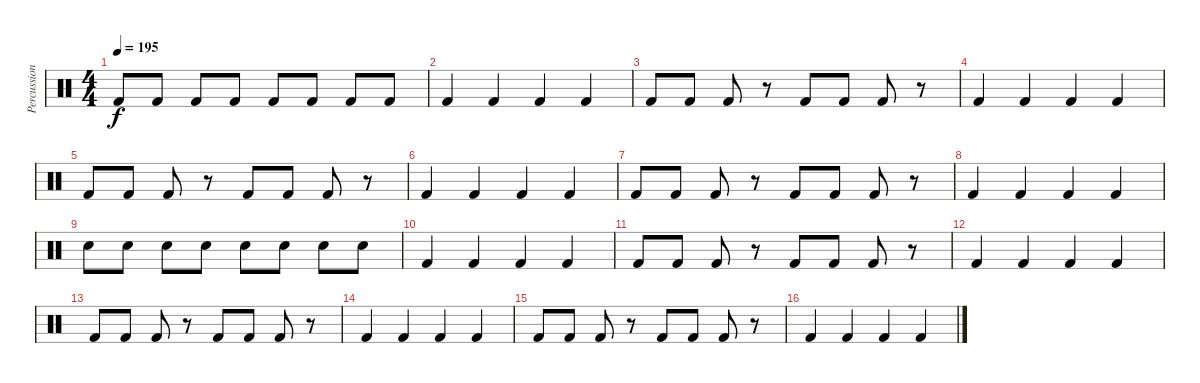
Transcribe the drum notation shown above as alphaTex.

\track ("Percussion" "Percussion") {instrument percussion}
\staff {score}
\articulation defaults
\ts (4 4)
\tempo 195
\clef neutral
\ks c "Kick (hit) 2".8{dy f} "Kick (hit) 2".8 "Kick (hit) 2".8 "Kick (hit) 2".8 "Kick (hit) 2".8 "Kick (hit) 2".8 "Kick (hit) 2".8 "Kick (hit) 2".8
|
"Kick (hit) 2".4 "Kick (hit) 2".4 "Kick (hit) 2".4 "Kick (hit) 2".4 |
"Kick (hit) 2".8 "Kick (hit) 2".8 "Kick (hit) 2".8 r.8 "Kick (hit) 2".8 "Kick (hit) 2".8 "Kick (hit) 2".8 r.8 |
"Kick (hit) 2".4 "Kick (hit) 2".4 "Kick (hit) 2".4 "Kick (hit) 2".4 |
"Kick (hit) 2".8 "Kick (hit) 2".8 "Kick (hit) 2".8 r.8 "Kick (hit) 2".8 "Kick (hit) 2".8 "Kick (hit) 2".8 r.8 |
"Kick (hit) 2".4 "Kick (hit) 2".4 "Kick (hit) 2".4 "Kick (hit) 2".4 |
"Kick (hit) 2".8 "Kick (hit) 2".8 "Kick (hit) 2".8 r.8 "Kick (hit) 2".8 "Kick (hit) 2".8 "Kick (hit) 2".8 r.8 |
"Kick (hit) 2".4 "Kick (hit) 2".4 "Kick (hit) 2".4 "Kick (hit) 2".4 |
"Snare (hit) 2".8 "Snare (hit) 2".8 "Snare (hit) 2".8 "Snare (hit) 2".8 "Snare (hit) 2".8 "Snare (hit) 2".8 "Snare (hit) 2".8 "Snare (hit) 2".8 |
"Kick (hit) 2".4 "Kick (hit) 2".4 "Kick (hit) 2".4 "Kick (hit) 2".4 |
"Kick (hit) 2".8 "Kick (hit) 2".8 "Kick (hit) 2".8 r.8 "Kick (hit) 2".8 "Kick (hit) 2".8 "Kick (hit) 2".8 r.8 |
"Kick (hit) 2".4 "Kick (hit) 2".4 "Kick (hit) 2".4 "Kick (hit) 2".4 |
"Kick (hit) 2".8 "Kick (hit) 2".8 "Kick (hit) 2".8 r.8 "Kick (hit) 2".8 "Kick (hit) 2".8 "Kick (hit) 2".8 r.8 |
"Kick (hit) 2".4 "Kick (hit) 2".4 "Kick (hit) 2".4 "Kick (hit) 2".4 |
"Kick (hit) 2".8 "Kick (hit) 2".8 "Kick (hit) 2".8 r.8 "Kick (hit) 2".8 "Kick (hit) 2".8 "Kick (hit) 2".8 r.8 |
"Kick (hit) 2".4 "Kick (hit) 2".4 "Kick (hit) 2".4 "Kick (hit) 2".4
